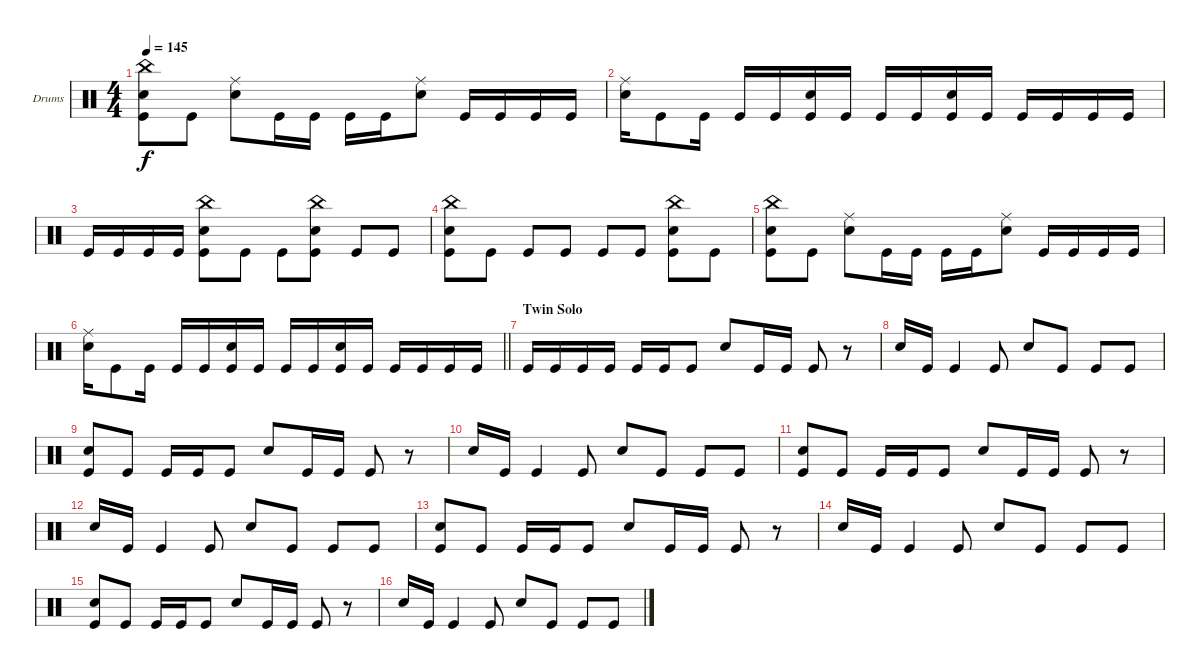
\bracketExtendMode groupsimilarinstruments
\firstSystemTrackNameOrientation horizontal
\otherSystemsTrackNameOrientation horizontal
\track ("Drumkit" "Drums") {instrument percussion}
\staff {score}
\articulation defaults
\ts (4 4)
\tempo 145
\clef neutral
\ks c
("China (hit)" "Snare (hit) 2" "Kick (hit)").8{dy f} "Kick (hit)".8 ("Ride (middle)" "Snare (hit) 2").8 "Kick (hit)".16 "Kick (hit)".16 "Kick (hit)".16 "Kick (hit)".16 ("Ride (middle)" "Snare (hit) 2").8 "Kick (hit)".16 "Kick (hit)".16 "Kick (hit)".16 "Kick (hit)".16 |
("Ride (middle)" "Snare (hit) 2").16 "Kick (hit)".8 "Kick (hit)".16 "Kick (hit)".16 "Kick (hit)".16 ("Snare (hit) 2" "Kick (hit)").16 "Kick (hit)".16 "Kick (hit)".16 "Kick (hit)".16 ("Snare (hit) 2" "Kick (hit)").16 "Kick (hit)".16 "Kick (hit)".16 "Kick (hit)".16 "Kick (hit)".16 "Kick (hit)".16 |
"Kick (hit)".16 "Kick (hit)".16 "Kick (hit)".16 "Kick (hit)".16 ("China (hit)" "Snare (hit) 2" "Kick (hit)").8 "Kick (hit)".8 "Kick (hit)".8 ("China (hit)" "Snare (hit) 2" "Kick (hit)").8 "Kick (hit)".8 "Kick (hit)".8 |
("China (hit)" "Snare (hit) 2" "Kick (hit)").8 "Kick (hit)".8 "Kick (hit)".8 "Kick (hit)".8 "Kick (hit)".8 "Kick (hit)".8 ("China (hit)" "Snare (hit) 2" "Kick (hit)").8 "Kick (hit)".8 |
("China (hit)" "Snare (hit) 2" "Kick (hit)").8 "Kick (hit)".8 ("Ride (middle)" "Snare (hit) 2").8 "Kick (hit)".16 "Kick (hit)".16 "Kick (hit)".16 "Kick (hit)".16 ("Ride (middle)" "Snare (hit) 2").8 "Kick (hit)".16 "Kick (hit)".16 "Kick (hit)".16 "Kick (hit)".16 |
\barLineRight lightlight
("Ride (middle)" "Snare (hit) 2").16 "Kick (hit)".8 "Kick (hit)".16 "Kick (hit)".16 "Kick (hit)".16 ("Snare (hit) 2" "Kick (hit)").16 "Kick (hit)".16 "Kick (hit)".16 "Kick (hit)".16 ("Snare (hit) 2" "Kick (hit)").16 "Kick (hit)".16 "Kick (hit)".16 "Kick (hit)".16 "Kick (hit)".16 "Kick (hit)".16 |
\section ("" "Twin Solo")
"Kick (hit)".16 "Kick (hit)".16 "Kick (hit)".16 "Kick (hit)".16 "Kick (hit)".16 "Kick (hit)".16 "Kick (hit)".8 "Snare (hit) 2".8 "Kick (hit)".16 "Kick (hit)".16 "Kick (hit)".8 r.8 |
"Snare (hit) 2".16 "Kick (hit)".16 "Kick (hit)".4 "Kick (hit)".8 "Snare (hit) 2".8 "Kick (hit)".8 "Kick (hit)".8 "Kick (hit)".8 |
("Snare (hit) 2" "Kick (hit)").8 "Kick (hit)".8 "Kick (hit)".16 "Kick (hit)".16 "Kick (hit)".8 "Snare (hit) 2".8 "Kick (hit)".16 "Kick (hit)".16 "Kick (hit)".8 r.8 |
"Snare (hit) 2".16 "Kick (hit)".16 "Kick (hit)".4 "Kick (hit)".8 "Snare (hit) 2".8 "Kick (hit)".8 "Kick (hit)".8 "Kick (hit)".8 |
("Snare (hit) 2" "Kick (hit)").8 "Kick (hit)".8 "Kick (hit)".16 "Kick (hit)".16 "Kick (hit)".8 "Snare (hit) 2".8 "Kick (hit)".16 "Kick (hit)".16 "Kick (hit)".8 r.8 |
"Snare (hit) 2".16 "Kick (hit)".16 "Kick (hit)".4 "Kick (hit)".8 "Snare (hit) 2".8 "Kick (hit)".8 "Kick (hit)".8 "Kick (hit)".8 |
("Snare (hit) 2" "Kick (hit)").8 "Kick (hit)".8 "Kick (hit)".16 "Kick (hit)".16 "Kick (hit)".8 "Snare (hit) 2".8 "Kick (hit)".16 "Kick (hit)".16 "Kick (hit)".8 r.8 |
"Snare (hit) 2".16 "Kick (hit)".16 "Kick (hit)".4 "Kick (hit)".8 "Snare (hit) 2".8 "Kick (hit)".8 "Kick (hit)".8 "Kick (hit)".8 |
("Snare (hit) 2" "Kick (hit)").8 "Kick (hit)".8 "Kick (hit)".16 "Kick (hit)".16 "Kick (hit)".8 "Snare (hit) 2".8 "Kick (hit)".16 "Kick (hit)".16 "Kick (hit)".8 r.8 |
"Snare (hit) 2".16 "Kick (hit)".16 "Kick (hit)".4 "Kick (hit)".8 "Snare (hit) 2".8 "Kick (hit)".8 "Kick (hit)".8 "Kick (hit)".8
